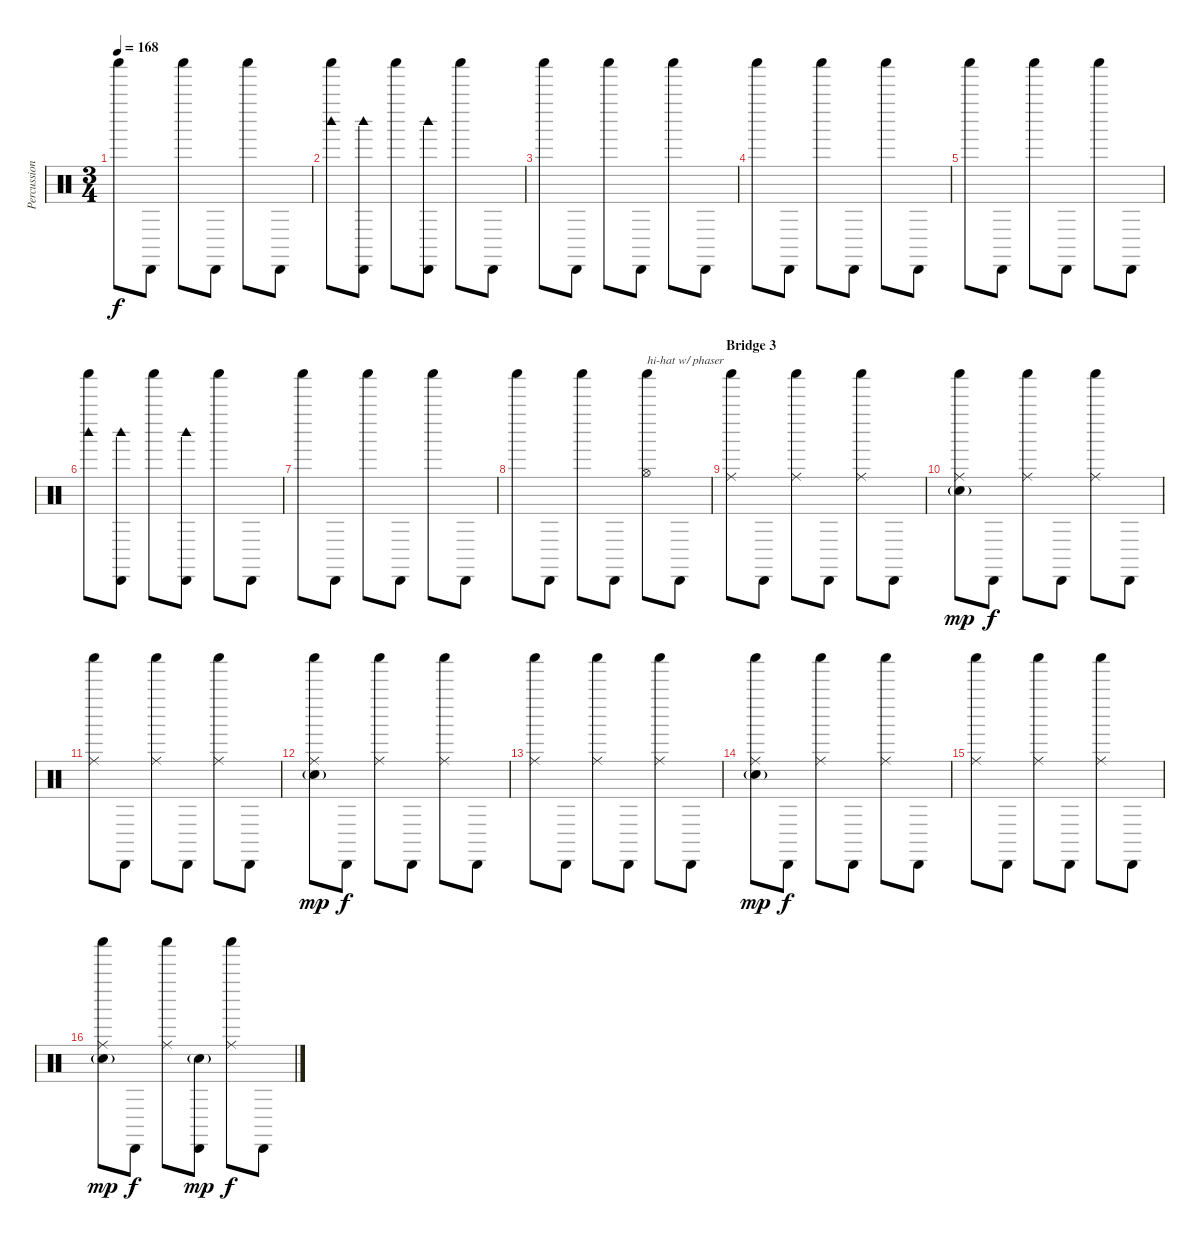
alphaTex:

\track ("Percussion" "Percussion") {instrument percussion}
\staff {score}
\articulation defaults
\ts (3 4)
\tempo 168
\clef neutral
\ks c "Shaker (hit)".8{dy f} "Cabasa (hit)".8 "Shaker (hit)".8 "Cabasa (hit)".8 "Shaker (hit)".8 "Cabasa (hit)".8
|
("Shaker (hit)" "Woodblock high (hit)").8 ("Cabasa (hit)" "Woodblock high (hit)").8 "Shaker (hit)".8 ("Cabasa (hit)" "Woodblock high (hit)").8 "Shaker (hit)".8 "Cabasa (hit)".8 |
"Shaker (hit)".8 "Cabasa (hit)".8 "Shaker (hit)".8 "Cabasa (hit)".8 "Shaker (hit)".8 "Cabasa (hit)".8 |
"Shaker (hit)".8 "Cabasa (hit)".8 "Shaker (hit)".8 "Cabasa (hit)".8 "Shaker (hit)".8 "Cabasa (hit)".8 |
"Shaker (hit)".8 "Cabasa (hit)".8 "Shaker (hit)".8 "Cabasa (hit)".8 "Shaker (hit)".8 "Cabasa (hit)".8 |
("Shaker (hit)" "Woodblock high (hit)").8 ("Cabasa (hit)" "Woodblock high (hit)").8 "Shaker (hit)".8 ("Cabasa (hit)" "Woodblock high (hit)").8 "Shaker (hit)".8 "Cabasa (hit)".8 |
"Shaker (hit)".8 "Cabasa (hit)".8 "Shaker (hit)".8 "Cabasa (hit)".8 "Shaker (hit)".8 "Cabasa (hit)".8 |
"Shaker (hit)".8 "Cabasa (hit)".8 "Shaker (hit)".8 "Cabasa (hit)".8 ("Shaker (hit)" "Hi-Hat (open)").8{txt "hi-hat w/ phaser"} "Cabasa (hit)".8 |
\section ("" "Bridge 3")
("Shaker (hit)" "Ride (middle)").8 "Cabasa (hit)".8 ("Shaker (hit)" "Ride (middle)").8 "Cabasa (hit)".8 ("Shaker (hit)" "Ride (middle)").8 "Cabasa (hit)".8 |
("Shaker (hit)" "Ride (middle)" "Electric Snare (hit)"{g}).8{dy mp} "Cabasa (hit)".8{dy f} ("Shaker (hit)" "Ride (middle)").8 "Cabasa (hit)".8 ("Shaker (hit)" "Ride (middle)").8 "Cabasa (hit)".8 |
("Shaker (hit)" "Ride (middle)").8 "Cabasa (hit)".8 ("Shaker (hit)" "Ride (middle)").8 "Cabasa (hit)".8 ("Shaker (hit)" "Ride (middle)").8 "Cabasa (hit)".8 |
("Shaker (hit)" "Ride (middle)" "Electric Snare (hit)"{g}).8{dy mp} "Cabasa (hit)".8{dy f} ("Shaker (hit)" "Ride (middle)").8 "Cabasa (hit)".8 ("Shaker (hit)" "Ride (middle)").8 "Cabasa (hit)".8 |
("Shaker (hit)" "Ride (middle)").8 "Cabasa (hit)".8 ("Shaker (hit)" "Ride (middle)").8 "Cabasa (hit)".8 ("Shaker (hit)" "Ride (middle)").8 "Cabasa (hit)".8 |
("Shaker (hit)" "Ride (middle)" "Electric Snare (hit)"{g}).8{dy mp} "Cabasa (hit)".8{dy f} ("Shaker (hit)" "Ride (middle)").8 "Cabasa (hit)".8 ("Shaker (hit)" "Ride (middle)").8 "Cabasa (hit)".8 |
("Shaker (hit)" "Ride (middle)").8 "Cabasa (hit)".8 ("Shaker (hit)" "Ride (middle)").8 "Cabasa (hit)".8 ("Shaker (hit)" "Ride (middle)").8 "Cabasa (hit)".8 |
("Shaker (hit)" "Ride (middle)" "Electric Snare (hit)"{g}).8{dy mp} "Cabasa (hit)".8{dy f} ("Shaker (hit)" "Ride (middle)").8 ("Cabasa (hit)" "Electric Snare (hit)"{g}).8{dy mp} ("Shaker (hit)" "Ride (middle)").8{dy f} "Cabasa (hit)".8
